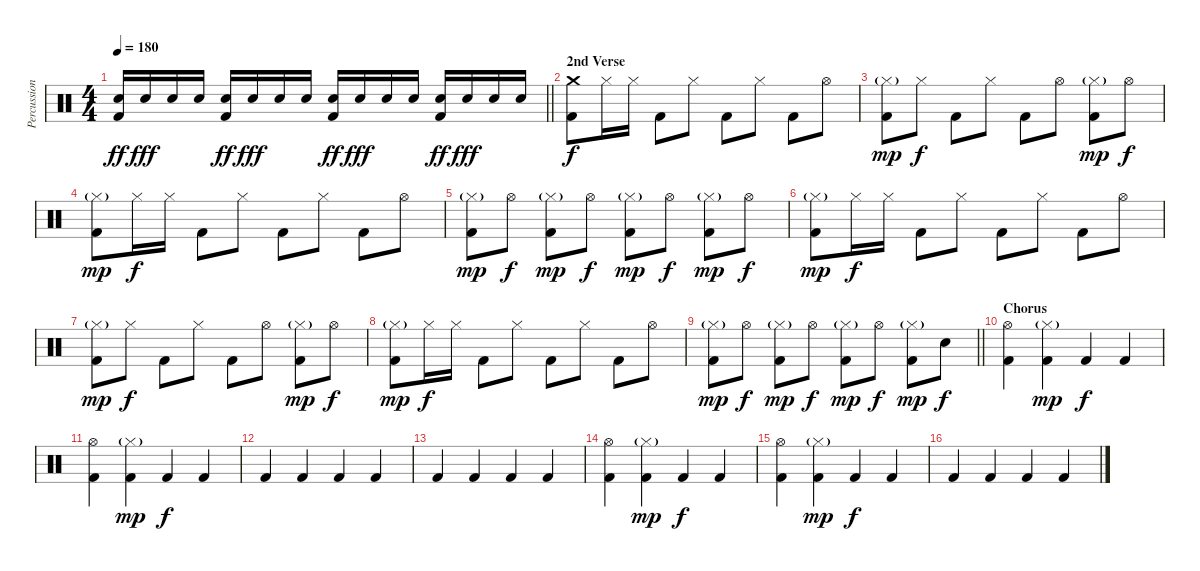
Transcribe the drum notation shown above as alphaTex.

\track ("Percussion" "Percussion") {instrument percussion}
\staff {score}
\articulation defaults
\ts (4 4)
\tempo 180
\clef neutral
\barLineRight lightlight
\ks c
("Snare (hit) 2" "Kick (hit) 2").16{dy ff} "Snare (hit) 2".16{dy fff} "Snare (hit) 2".16 "Snare (hit) 2".16 ("Snare (hit) 2" "Kick (hit) 2").16{dy ff} "Snare (hit) 2".16{dy fff} "Snare (hit) 2".16 "Snare (hit) 2".16 ("Snare (hit) 2" "Kick (hit) 2").16{dy ff} "Snare (hit) 2".16{dy fff} "Snare (hit) 2".16 "Snare (hit) 2".16 ("Snare (hit) 2" "Kick (hit) 2").16{dy ff} "Snare (hit) 2".16{dy fff} "Snare (hit) 2".16 "Snare (hit) 2".16 |
\section ("" "2nd Verse")
("Crash medium (hit)" "Kick (hit) 2").8{dy f} "Hi-Hat (closed)".16 "Hi-Hat (closed)".16 "Kick (hit) 2".8 "Hi-Hat (closed)".8 "Kick (hit) 2".8 "Hi-Hat (closed)".8 "Kick (hit) 2".8 "Hi-Hat (open)".8 |
("Hi-Hat (closed)"{g} "Kick (hit) 2").8{dy mp} "Hi-Hat (closed)".8{dy f} "Kick (hit) 2".8 "Hi-Hat (closed)".8 "Kick (hit) 2".8 "Hi-Hat (open)".8 ("Hi-Hat (closed)"{g} "Kick (hit) 2").8{dy mp} "Hi-Hat (open)".8{dy f} |
("Hi-Hat (closed)"{g} "Kick (hit) 2").8{dy mp} "Hi-Hat (closed)".16{dy f} "Hi-Hat (closed)".16 "Kick (hit) 2".8 "Hi-Hat (closed)".8 "Kick (hit) 2".8 "Hi-Hat (closed)".8 "Kick (hit) 2".8 "Hi-Hat (open)".8 |
("Hi-Hat (closed)"{g} "Kick (hit) 2").8{dy mp} "Hi-Hat (open)".8{dy f} ("Hi-Hat (closed)"{g} "Kick (hit) 2").8{dy mp} "Hi-Hat (open)".8{dy f} ("Hi-Hat (closed)"{g} "Kick (hit) 2").8{dy mp} "Hi-Hat (open)".8{dy f} ("Hi-Hat (closed)"{g} "Kick (hit) 2").8{dy mp} "Hi-Hat (open)".8{dy f} |
("Hi-Hat (closed)"{g} "Kick (hit) 2").8{dy mp} "Hi-Hat (closed)".16{dy f} "Hi-Hat (closed)".16 "Kick (hit) 2".8 "Hi-Hat (closed)".8 "Kick (hit) 2".8 "Hi-Hat (closed)".8 "Kick (hit) 2".8 "Hi-Hat (open)".8 |
("Hi-Hat (closed)"{g} "Kick (hit) 2").8{dy mp} "Hi-Hat (closed)".8{dy f} "Kick (hit) 2".8 "Hi-Hat (closed)".8 "Kick (hit) 2".8 "Hi-Hat (open)".8 ("Hi-Hat (closed)"{g} "Kick (hit) 2").8{dy mp} "Hi-Hat (open)".8{dy f} |
("Hi-Hat (closed)"{g} "Kick (hit) 2").8{dy mp} "Hi-Hat (closed)".16{dy f} "Hi-Hat (closed)".16 "Kick (hit) 2".8 "Hi-Hat (closed)".8 "Kick (hit) 2".8 "Hi-Hat (closed)".8 "Kick (hit) 2".8 "Hi-Hat (open)".8 |
\barLineRight lightlight
("Hi-Hat (closed)"{g} "Kick (hit) 2").8{dy mp} "Hi-Hat (open)".8{dy f} ("Hi-Hat (closed)"{g} "Kick (hit) 2").8{dy mp} "Hi-Hat (open)".8{dy f} ("Hi-Hat (closed)"{g} "Kick (hit) 2").8{dy mp} "Hi-Hat (open)".8{dy f} ("Hi-Hat (closed)"{g} "Kick (hit) 2").8{dy mp} "Snare (hit) 2".8{dy f} |
\section ("" "Chorus")
("Hi-Hat (open)" "Kick (hit) 2").4 ("Hi-Hat (closed)"{g} "Kick (hit) 2").4{dy mp} "Kick (hit) 2".4{dy f} "Kick (hit) 2".4 |
("Hi-Hat (open)" "Kick (hit) 2").4 ("Hi-Hat (closed)"{g} "Kick (hit) 2").4{dy mp} "Kick (hit) 2".4{dy f} "Kick (hit) 2".4 |
"Kick (hit) 2".4 "Kick (hit) 2".4 "Kick (hit) 2".4 "Kick (hit) 2".4 |
"Kick (hit) 2".4 "Kick (hit) 2".4 "Kick (hit) 2".4 "Kick (hit) 2".4 |
("Hi-Hat (open)" "Kick (hit) 2").4 ("Hi-Hat (closed)"{g} "Kick (hit) 2").4{dy mp} "Kick (hit) 2".4{dy f} "Kick (hit) 2".4 |
("Hi-Hat (open)" "Kick (hit) 2").4 ("Hi-Hat (closed)"{g} "Kick (hit) 2").4{dy mp} "Kick (hit) 2".4{dy f} "Kick (hit) 2".4 |
"Kick (hit) 2".4 "Kick (hit) 2".4 "Kick (hit) 2".4 "Kick (hit) 2".4
